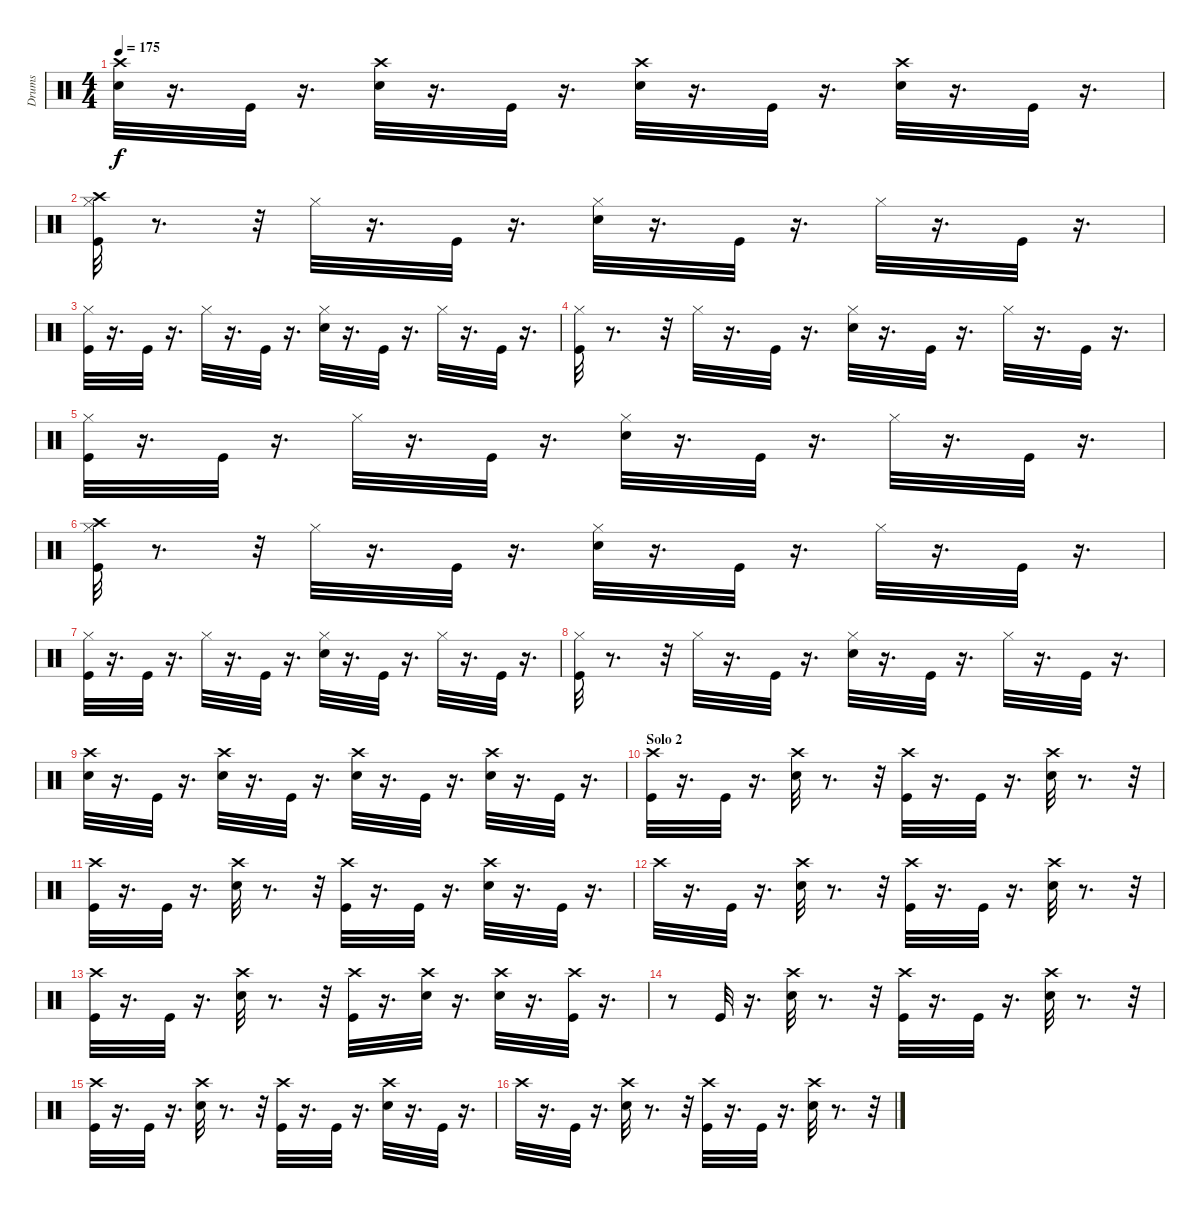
\track ("Drums" "Drums") {instrument percussion}
\staff {score}
\articulation defaults
\ts (4 4)
\tempo 175
\clef neutral
\ks c
("Crash high (hit)" "Electric Snare (hit)").32{dy f} r.16{d} "Kick (hit)".32 r.16{d} ("Crash high (hit)" "Electric Snare (hit)").32 r.16{d} "Kick (hit)".32 r.16{d} ("Crash high (hit)" "Electric Snare (hit)").32 r.16{d} "Kick (hit)".32 r.16{d} ("Crash high (hit)" "Electric Snare (hit)").32 r.16{d} "Kick (hit)".32 r.16{d} |
("Hi-Hat (closed)" "Crash high (hit)" "Kick (hit)").32 r.8{d} r.32 "Hi-Hat (closed)".32 r.16{d} "Kick (hit)".32 r.16{d} ("Hi-Hat (closed)" "Electric Snare (hit)").32 r.16{d} "Kick (hit)".32 r.16{d} "Hi-Hat (closed)".32 r.16{d} "Kick (hit)".32 r.16{d} |
("Hi-Hat (closed)" "Kick (hit)").32 r.16{d} "Kick (hit)".32 r.16{d} "Hi-Hat (closed)".32 r.16{d} "Kick (hit)".32 r.16{d} ("Hi-Hat (closed)" "Electric Snare (hit)").32 r.16{d} "Kick (hit)".32 r.16{d} "Hi-Hat (closed)".32 r.16{d} "Kick (hit)".32 r.16{d} |
("Hi-Hat (closed)" "Kick (hit)").32 r.8{d} r.32 "Hi-Hat (closed)".32 r.16{d} "Kick (hit)".32 r.16{d} ("Hi-Hat (closed)" "Electric Snare (hit)").32 r.16{d} "Kick (hit)".32 r.16{d} "Hi-Hat (closed)".32 r.16{d} "Kick (hit)".32 r.16{d} |
("Hi-Hat (closed)" "Kick (hit)").32 r.16{d} "Kick (hit)".32 r.16{d} "Hi-Hat (closed)".32 r.16{d} "Kick (hit)".32 r.16{d} ("Hi-Hat (closed)" "Electric Snare (hit)").32 r.16{d} "Kick (hit)".32 r.16{d} "Hi-Hat (closed)".32 r.16{d} "Kick (hit)".32 r.16{d} |
("Hi-Hat (closed)" "Crash high (hit)" "Kick (hit)").32 r.8{d} r.32 "Hi-Hat (closed)".32 r.16{d} "Kick (hit)".32 r.16{d} ("Hi-Hat (closed)" "Electric Snare (hit)").32 r.16{d} "Kick (hit)".32 r.16{d} "Hi-Hat (closed)".32 r.16{d} "Kick (hit)".32 r.16{d} |
("Hi-Hat (closed)" "Kick (hit)").32 r.16{d} "Kick (hit)".32 r.16{d} "Hi-Hat (closed)".32 r.16{d} "Kick (hit)".32 r.16{d} ("Hi-Hat (closed)" "Electric Snare (hit)").32 r.16{d} "Kick (hit)".32 r.16{d} "Hi-Hat (closed)".32 r.16{d} "Kick (hit)".32 r.16{d} |
("Hi-Hat (closed)" "Kick (hit)").32 r.8{d} r.32 "Hi-Hat (closed)".32 r.16{d} "Kick (hit)".32 r.16{d} ("Hi-Hat (closed)" "Electric Snare (hit)").32 r.16{d} "Kick (hit)".32 r.16{d} "Hi-Hat (closed)".32 r.16{d} "Kick (hit)".32 r.16{d} |
("Crash high (hit)" "Electric Snare (hit)").32 r.16{d} "Kick (hit)".32 r.16{d} ("Crash high (hit)" "Electric Snare (hit)").32 r.16{d} "Kick (hit)".32 r.16{d} ("Crash high (hit)" "Electric Snare (hit)").32 r.16{d} "Kick (hit)".32 r.16{d} ("Crash high (hit)" "Electric Snare (hit)").32 r.16{d} "Kick (hit)".32 r.16{d} |
\section ("" "Solo 2")
("Crash high (hit)" "Kick (hit)").32 r.16{d} "Kick (hit)".32 r.16{d} ("Crash high (hit)" "Electric Snare (hit)").32 r.8{d} r.32 ("Crash high (hit)" "Kick (hit)").32 r.16{d} "Kick (hit)".32 r.16{d} ("Electric Snare (hit)" "Crash high (hit)").32 r.8{d} r.32 |
("Crash high (hit)" "Kick (hit)").32 r.16{d} "Kick (hit)".32 r.16{d} ("Crash high (hit)" "Electric Snare (hit)").32 r.8{d} r.32 ("Crash high (hit)" "Kick (hit)").32 r.16{d} "Kick (hit)".32 r.16{d} ("Electric Snare (hit)" "Crash high (hit)").32 r.16{d} "Kick (hit)".32 r.16{d} |
"Crash high (hit)".32 r.16{d} "Kick (hit)".32 r.16{d} ("Crash high (hit)" "Electric Snare (hit)").32 r.8{d} r.32 ("Crash high (hit)" "Kick (hit)").32 r.16{d} "Kick (hit)".32 r.16{d} ("Electric Snare (hit)" "Crash high (hit)").32 r.8{d} r.32 |
("Crash high (hit)" "Kick (hit)").32 r.16{d} "Kick (hit)".32 r.16{d} ("Crash high (hit)" "Electric Snare (hit)").32 r.8{d} r.32 ("Crash high (hit)" "Kick (hit)").32 r.16{d} ("Electric Snare (hit)" "Crash high (hit)").32 r.16{d} ("Electric Snare (hit)" "Crash high (hit)").32 r.16{d} ("Crash high (hit)" "Kick (hit)").32 r.16{d} |
r.8 "Kick (hit)".32 r.16{d} ("Crash high (hit)" "Electric Snare (hit)").32 r.8{d} r.32 ("Crash high (hit)" "Kick (hit)").32 r.16{d} "Kick (hit)".32 r.16{d} ("Electric Snare (hit)" "Crash high (hit)").32 r.8{d} r.32 |
("Crash high (hit)" "Kick (hit)").32 r.16{d} "Kick (hit)".32 r.16{d} ("Crash high (hit)" "Electric Snare (hit)").32 r.8{d} r.32 ("Crash high (hit)" "Kick (hit)").32 r.16{d} "Kick (hit)".32 r.16{d} ("Electric Snare (hit)" "Crash high (hit)").32 r.16{d} "Kick (hit)".32 r.16{d} |
"Crash high (hit)".32 r.16{d} "Kick (hit)".32 r.16{d} ("Crash high (hit)" "Electric Snare (hit)").32 r.8{d} r.32 ("Crash high (hit)" "Kick (hit)").32 r.16{d} "Kick (hit)".32 r.16{d} ("Electric Snare (hit)" "Crash high (hit)").32 r.8{d} r.32
